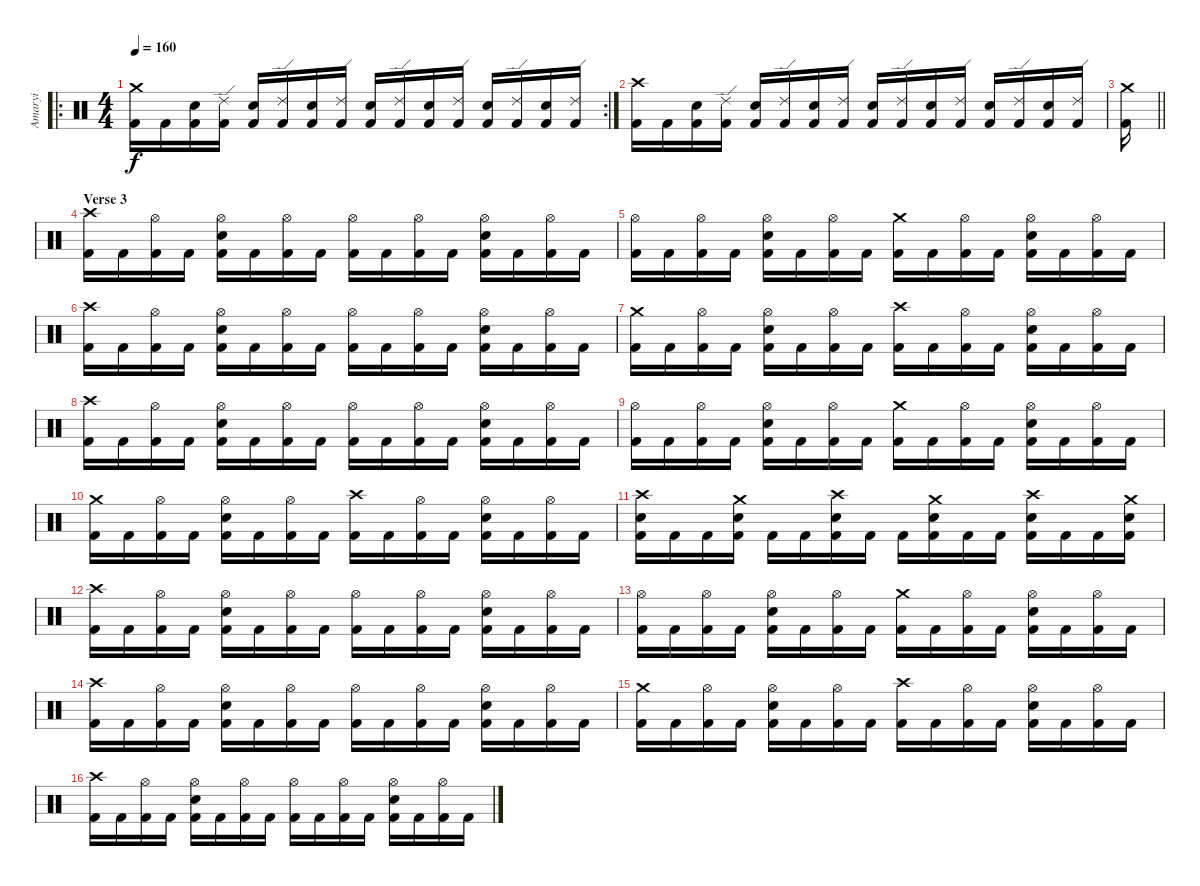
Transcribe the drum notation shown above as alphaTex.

\track ("Amaryi" "Amaryi") {instrument percussion}
\staff {score}
\articulation defaults
\ro
\rc 2
\ts (4 4)
\tempo 160
\clef neutral
\ks c
("Crash medium (hit)" "Kick (hit) 2").16{dy f} "Kick (hit) 2".16 ("Electric Snare (hit)" "Kick (hit) 2").16 ("Ride (edge) 2" "Kick (hit) 2").16 ("Electric Snare (hit)" "Kick (hit) 2").16 ("Ride (edge) 2" "Kick (hit) 2").16 ("Electric Snare (hit)" "Kick (hit) 2").16 ("Ride (edge) 2" "Kick (hit) 2").16 ("Electric Snare (hit)" "Kick (hit) 2").16 ("Ride (edge) 2" "Kick (hit) 2").16 ("Electric Snare (hit)" "Kick (hit) 2").16 ("Ride (edge) 2" "Kick (hit) 2").16 ("Electric Snare (hit)" "Kick (hit) 2").16 ("Ride (edge) 2" "Kick (hit) 2").16 ("Electric Snare (hit)" "Kick (hit) 2").16 ("Ride (edge) 2" "Kick (hit) 2").16 |
("Crash high (hit)" "Kick (hit) 2").16 "Kick (hit) 2".16 ("Electric Snare (hit)" "Kick (hit) 2").16 ("Ride (edge) 2" "Kick (hit) 2").16 ("Electric Snare (hit)" "Kick (hit) 2").16 ("Ride (edge) 2" "Kick (hit) 2").16 ("Electric Snare (hit)" "Kick (hit) 2").16 ("Ride (edge) 2" "Kick (hit) 2").16 ("Electric Snare (hit)" "Kick (hit) 2").16 ("Ride (edge) 2" "Kick (hit) 2").16 ("Electric Snare (hit)" "Kick (hit) 2").16 ("Ride (edge) 2" "Kick (hit) 2").16 ("Electric Snare (hit)" "Kick (hit) 2").16 ("Ride (edge) 2" "Kick (hit) 2").16 ("Electric Snare (hit)" "Kick (hit) 2").16 ("Ride (edge) 2" "Kick (hit) 2").16 |
\barLineRight lightlight
("Crash medium (hit)" "Kick (hit) 2").16 |
\section ("" "Verse 3")
("Crash high (hit)" "Kick (hit) 2").16 "Kick (hit) 2".16 ("Hi-Hat (open)" "Kick (hit) 2").16 "Kick (hit) 2".16 ("Hi-Hat (open)" "Electric Snare (hit)" "Kick (hit) 2").16 "Kick (hit) 2".16 ("Hi-Hat (open)" "Kick (hit) 2").16 "Kick (hit) 2".16 ("Hi-Hat (open)" "Kick (hit) 2").16 "Kick (hit) 2".16 ("Hi-Hat (open)" "Kick (hit) 2").16 "Kick (hit) 2".16 ("Hi-Hat (open)" "Electric Snare (hit)" "Kick (hit) 2").16 "Kick (hit) 2".16 ("Hi-Hat (open)" "Kick (hit) 2").16 "Kick (hit) 2".16 |
("Hi-Hat (open)" "Kick (hit) 2").16 "Kick (hit) 2".16 ("Hi-Hat (open)" "Kick (hit) 2").16 "Kick (hit) 2".16 ("Hi-Hat (open)" "Electric Snare (hit)" "Kick (hit) 2").16 "Kick (hit) 2".16 ("Hi-Hat (open)" "Kick (hit) 2").16 "Kick (hit) 2".16 ("Crash medium (hit)" "Kick (hit) 2").16 "Kick (hit) 2".16 ("Hi-Hat (open)" "Kick (hit) 2").16 "Kick (hit) 2".16 ("Hi-Hat (open)" "Electric Snare (hit)" "Kick (hit) 2").16 "Kick (hit) 2".16 ("Hi-Hat (open)" "Kick (hit) 2").16 "Kick (hit) 2".16 |
("Crash high (hit)" "Kick (hit) 2").16 "Kick (hit) 2".16 ("Hi-Hat (open)" "Kick (hit) 2").16 "Kick (hit) 2".16 ("Hi-Hat (open)" "Electric Snare (hit)" "Kick (hit) 2").16 "Kick (hit) 2".16 ("Hi-Hat (open)" "Kick (hit) 2").16 "Kick (hit) 2".16 ("Hi-Hat (open)" "Kick (hit) 2").16 "Kick (hit) 2".16 ("Hi-Hat (open)" "Kick (hit) 2").16 "Kick (hit) 2".16 ("Hi-Hat (open)" "Electric Snare (hit)" "Kick (hit) 2").16 "Kick (hit) 2".16 ("Hi-Hat (open)" "Kick (hit) 2").16 "Kick (hit) 2".16 |
("Crash medium (hit)" "Kick (hit) 2").16 "Kick (hit) 2".16 ("Hi-Hat (open)" "Kick (hit) 2").16 "Kick (hit) 2".16 ("Hi-Hat (open)" "Electric Snare (hit)" "Kick (hit) 2").16 "Kick (hit) 2".16 ("Hi-Hat (open)" "Kick (hit) 2").16 "Kick (hit) 2".16 ("Crash high (hit)" "Kick (hit) 2").16 "Kick (hit) 2".16 ("Hi-Hat (open)" "Kick (hit) 2").16 "Kick (hit) 2".16 ("Hi-Hat (open)" "Electric Snare (hit)" "Kick (hit) 2").16 "Kick (hit) 2".16 ("Hi-Hat (open)" "Kick (hit) 2").16 "Kick (hit) 2".16 |
("Crash high (hit)" "Kick (hit) 2").16 "Kick (hit) 2".16 ("Hi-Hat (open)" "Kick (hit) 2").16 "Kick (hit) 2".16 ("Hi-Hat (open)" "Electric Snare (hit)" "Kick (hit) 2").16 "Kick (hit) 2".16 ("Hi-Hat (open)" "Kick (hit) 2").16 "Kick (hit) 2".16 ("Hi-Hat (open)" "Kick (hit) 2").16 "Kick (hit) 2".16 ("Hi-Hat (open)" "Kick (hit) 2").16 "Kick (hit) 2".16 ("Hi-Hat (open)" "Electric Snare (hit)" "Kick (hit) 2").16 "Kick (hit) 2".16 ("Hi-Hat (open)" "Kick (hit) 2").16 "Kick (hit) 2".16 |
("Hi-Hat (open)" "Kick (hit) 2").16 "Kick (hit) 2".16 ("Hi-Hat (open)" "Kick (hit) 2").16 "Kick (hit) 2".16 ("Hi-Hat (open)" "Electric Snare (hit)" "Kick (hit) 2").16 "Kick (hit) 2".16 ("Hi-Hat (open)" "Kick (hit) 2").16 "Kick (hit) 2".16 ("Crash medium (hit)" "Kick (hit) 2").16 "Kick (hit) 2".16 ("Hi-Hat (open)" "Kick (hit) 2").16 "Kick (hit) 2".16 ("Hi-Hat (open)" "Electric Snare (hit)" "Kick (hit) 2").16 "Kick (hit) 2".16 ("Hi-Hat (open)" "Kick (hit) 2").16 "Kick (hit) 2".16 |
("Crash medium (hit)" "Kick (hit) 2").16 "Kick (hit) 2".16 ("Hi-Hat (open)" "Kick (hit) 2").16 "Kick (hit) 2".16 ("Hi-Hat (open)" "Electric Snare (hit)" "Kick (hit) 2").16 "Kick (hit) 2".16 ("Hi-Hat (open)" "Kick (hit) 2").16 "Kick (hit) 2".16 ("Crash high (hit)" "Kick (hit) 2").16 "Kick (hit) 2".16 ("Hi-Hat (open)" "Kick (hit) 2").16 "Kick (hit) 2".16 ("Hi-Hat (open)" "Electric Snare (hit)" "Kick (hit) 2").16 "Kick (hit) 2".16 ("Hi-Hat (open)" "Kick (hit) 2").16 "Kick (hit) 2".16 |
("Crash high (hit)" "Electric Snare (hit)" "Kick (hit) 2").16 "Kick (hit) 2".16 "Kick (hit) 2".16 ("Crash medium (hit)" "Electric Snare (hit)" "Kick (hit) 2").16 "Kick (hit) 2".16 "Kick (hit) 2".16 ("Crash high (hit)" "Electric Snare (hit)" "Kick (hit) 2").16 "Kick (hit) 2".16 "Kick (hit) 2".16 ("Crash medium (hit)" "Electric Snare (hit)" "Kick (hit) 2").16 "Kick (hit) 2".16 "Kick (hit) 2".16 ("Crash high (hit)" "Electric Snare (hit)" "Kick (hit) 2").16 "Kick (hit) 2".16 "Kick (hit) 2".16 ("Crash medium (hit)" "Electric Snare (hit)" "Kick (hit) 2").16 |
("Crash high (hit)" "Kick (hit) 2").16 "Kick (hit) 2".16 ("Hi-Hat (open)" "Kick (hit) 2").16 "Kick (hit) 2".16 ("Hi-Hat (open)" "Electric Snare (hit)" "Kick (hit) 2").16 "Kick (hit) 2".16 ("Hi-Hat (open)" "Kick (hit) 2").16 "Kick (hit) 2".16 ("Hi-Hat (open)" "Kick (hit) 2").16 "Kick (hit) 2".16 ("Hi-Hat (open)" "Kick (hit) 2").16 "Kick (hit) 2".16 ("Hi-Hat (open)" "Electric Snare (hit)" "Kick (hit) 2").16 "Kick (hit) 2".16 ("Hi-Hat (open)" "Kick (hit) 2").16 "Kick (hit) 2".16 |
("Hi-Hat (open)" "Kick (hit) 2").16 "Kick (hit) 2".16 ("Hi-Hat (open)" "Kick (hit) 2").16 "Kick (hit) 2".16 ("Hi-Hat (open)" "Electric Snare (hit)" "Kick (hit) 2").16 "Kick (hit) 2".16 ("Hi-Hat (open)" "Kick (hit) 2").16 "Kick (hit) 2".16 ("Crash medium (hit)" "Kick (hit) 2").16 "Kick (hit) 2".16 ("Hi-Hat (open)" "Kick (hit) 2").16 "Kick (hit) 2".16 ("Hi-Hat (open)" "Electric Snare (hit)" "Kick (hit) 2").16 "Kick (hit) 2".16 ("Hi-Hat (open)" "Kick (hit) 2").16 "Kick (hit) 2".16 |
("Crash high (hit)" "Kick (hit) 2").16 "Kick (hit) 2".16 ("Hi-Hat (open)" "Kick (hit) 2").16 "Kick (hit) 2".16 ("Hi-Hat (open)" "Electric Snare (hit)" "Kick (hit) 2").16 "Kick (hit) 2".16 ("Hi-Hat (open)" "Kick (hit) 2").16 "Kick (hit) 2".16 ("Hi-Hat (open)" "Kick (hit) 2").16 "Kick (hit) 2".16 ("Hi-Hat (open)" "Kick (hit) 2").16 "Kick (hit) 2".16 ("Hi-Hat (open)" "Electric Snare (hit)" "Kick (hit) 2").16 "Kick (hit) 2".16 ("Hi-Hat (open)" "Kick (hit) 2").16 "Kick (hit) 2".16 |
("Crash medium (hit)" "Kick (hit) 2").16 "Kick (hit) 2".16 ("Hi-Hat (open)" "Kick (hit) 2").16 "Kick (hit) 2".16 ("Hi-Hat (open)" "Electric Snare (hit)" "Kick (hit) 2").16 "Kick (hit) 2".16 ("Hi-Hat (open)" "Kick (hit) 2").16 "Kick (hit) 2".16 ("Crash high (hit)" "Kick (hit) 2").16 "Kick (hit) 2".16 ("Hi-Hat (open)" "Kick (hit) 2").16 "Kick (hit) 2".16 ("Hi-Hat (open)" "Electric Snare (hit)" "Kick (hit) 2").16 "Kick (hit) 2".16 ("Hi-Hat (open)" "Kick (hit) 2").16 "Kick (hit) 2".16 |
("Crash high (hit)" "Kick (hit) 2").16 "Kick (hit) 2".16 ("Hi-Hat (open)" "Kick (hit) 2").16 "Kick (hit) 2".16 ("Hi-Hat (open)" "Electric Snare (hit)" "Kick (hit) 2").16 "Kick (hit) 2".16 ("Hi-Hat (open)" "Kick (hit) 2").16 "Kick (hit) 2".16 ("Hi-Hat (open)" "Kick (hit) 2").16 "Kick (hit) 2".16 ("Hi-Hat (open)" "Kick (hit) 2").16 "Kick (hit) 2".16 ("Hi-Hat (open)" "Electric Snare (hit)" "Kick (hit) 2").16 "Kick (hit) 2".16 ("Hi-Hat (open)" "Kick (hit) 2").16 "Kick (hit) 2".16
